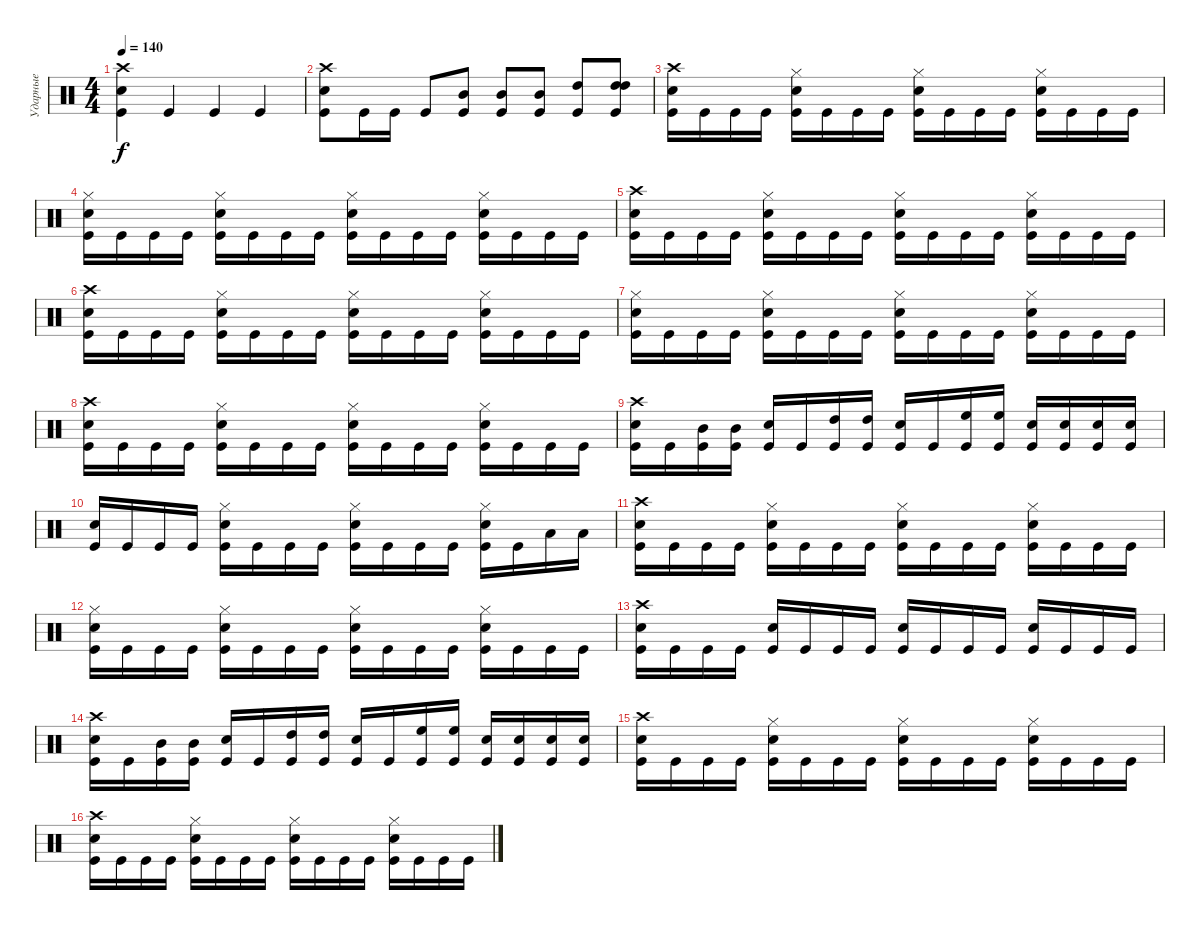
\track ("Ударные" "Ударные") {instrument percussion}
\staff {score}
\articulation defaults
\ts (4 4)
\tempo 140
\clef neutral
\ks c
("Crash high (hit)" "Electric Snare (hit)" "Kick (hit)").4{dy f} "Kick (hit)".4 "Kick (hit)".4 "Kick (hit)".4 |
("Electric Snare (hit)" "Crash high (hit)" "Kick (hit)").8 "Kick (hit)".16 "Kick (hit)".16 "Kick (hit)".8 ("Mid Tom (hit)" "Kick (hit)").8 ("Mid Tom (hit)" "Kick (hit)").8 ("Mid Tom (hit)" "Kick (hit)").8 ("High Tom (hit)" "Kick (hit)").8 ("High Tom (hit)" "High Tom (hit)" "Kick (hit)").8 |
("Crash high (hit)" "Electric Snare (hit)" "Kick (hit)").16 "Kick (hit)".16 "Kick (hit)".16 "Kick (hit)".16 ("Hi-Hat (closed)" "Electric Snare (hit)" "Kick (hit)").16 "Kick (hit)".16 "Kick (hit)".16 "Kick (hit)".16 ("Hi-Hat (closed)" "Electric Snare (hit)" "Kick (hit)").16 "Kick (hit)".16 "Kick (hit)".16 "Kick (hit)".16 ("Hi-Hat (closed)" "Electric Snare (hit)" "Kick (hit)").16 "Kick (hit)".16 "Kick (hit)".16 "Kick (hit)".16 |
("Hi-Hat (closed)" "Electric Snare (hit)" "Kick (hit)").16 "Kick (hit)".16 "Kick (hit)".16 "Kick (hit)".16 ("Hi-Hat (closed)" "Electric Snare (hit)" "Kick (hit)").16 "Kick (hit)".16 "Kick (hit)".16 "Kick (hit)".16 ("Hi-Hat (closed)" "Electric Snare (hit)" "Kick (hit)").16 "Kick (hit)".16 "Kick (hit)".16 "Kick (hit)".16 ("Hi-Hat (closed)" "Electric Snare (hit)" "Kick (hit)").16 "Kick (hit)".16 "Kick (hit)".16 "Kick (hit)".16 |
("Crash high (hit)" "Electric Snare (hit)" "Kick (hit)").16 "Kick (hit)".16 "Kick (hit)".16 "Kick (hit)".16 ("Hi-Hat (closed)" "Electric Snare (hit)" "Kick (hit)").16 "Kick (hit)".16 "Kick (hit)".16 "Kick (hit)".16 ("Hi-Hat (closed)" "Electric Snare (hit)" "Kick (hit)").16 "Kick (hit)".16 "Kick (hit)".16 "Kick (hit)".16 ("Hi-Hat (closed)" "Electric Snare (hit)" "Kick (hit)").16 "Kick (hit)".16 "Kick (hit)".16 "Kick (hit)".16 |
("Crash high (hit)" "Electric Snare (hit)" "Kick (hit)").16 "Kick (hit)".16 "Kick (hit)".16 "Kick (hit)".16 ("Hi-Hat (closed)" "Electric Snare (hit)" "Kick (hit)").16 "Kick (hit)".16 "Kick (hit)".16 "Kick (hit)".16 ("Hi-Hat (closed)" "Electric Snare (hit)" "Kick (hit)").16 "Kick (hit)".16 "Kick (hit)".16 "Kick (hit)".16 ("Hi-Hat (closed)" "Electric Snare (hit)" "Kick (hit)").16 "Kick (hit)".16 "Kick (hit)".16 "Kick (hit)".16 |
("Hi-Hat (closed)" "Electric Snare (hit)" "Kick (hit)").16 "Kick (hit)".16 "Kick (hit)".16 "Kick (hit)".16 ("Hi-Hat (closed)" "Electric Snare (hit)" "Kick (hit)").16 "Kick (hit)".16 "Kick (hit)".16 "Kick (hit)".16 ("Hi-Hat (closed)" "Electric Snare (hit)" "Kick (hit)").16 "Kick (hit)".16 "Kick (hit)".16 "Kick (hit)".16 ("Hi-Hat (closed)" "Electric Snare (hit)" "Kick (hit)").16 "Kick (hit)".16 "Kick (hit)".16 "Kick (hit)".16 |
("Crash high (hit)" "Electric Snare (hit)" "Kick (hit)").16 "Kick (hit)".16 "Kick (hit)".16 "Kick (hit)".16 ("Hi-Hat (closed)" "Electric Snare (hit)" "Kick (hit)").16 "Kick (hit)".16 "Kick (hit)".16 "Kick (hit)".16 ("Hi-Hat (closed)" "Electric Snare (hit)" "Kick (hit)").16 "Kick (hit)".16 "Kick (hit)".16 "Kick (hit)".16 ("Hi-Hat (closed)" "Electric Snare (hit)" "Kick (hit)").16 "Kick (hit)".16 "Kick (hit)".16 "Kick (hit)".16 |
("Crash high (hit)" "Electric Snare (hit)" "Kick (hit)").16 "Kick (hit)".16 ("Mid Tom (hit)" "Kick (hit)").16 ("Mid Tom (hit)" "Kick (hit)").16 ("Electric Snare (hit)" "Kick (hit)").16 "Kick (hit)".16 ("High Tom (hit)" "Kick (hit)").16 ("High Tom (hit)" "Kick (hit)").16 ("Electric Snare (hit)" "Kick (hit)").16 "Kick (hit)".16 ("High Floor Tom (hit)" "Kick (hit)").16 ("High Floor Tom (hit)" "Kick (hit)").16 ("Electric Snare (hit)" "Kick (hit)").16 ("Electric Snare (hit)" "Kick (hit)").16 ("Electric Snare (hit)" "Kick (hit)").16 ("Electric Snare (hit)" "Kick (hit)").16 |
("Electric Snare (hit)" "Kick (hit)").16 "Kick (hit)".16 "Kick (hit)".16 "Kick (hit)".16 ("Hi-Hat (closed)" "Electric Snare (hit)" "Kick (hit)").16 "Kick (hit)".16 "Kick (hit)".16 "Kick (hit)".16 ("Hi-Hat (closed)" "Electric Snare (hit)" "Kick (hit)").16 "Kick (hit)".16 "Kick (hit)".16 "Kick (hit)".16 ("Hi-Hat (closed)" "Electric Snare (hit)" "Kick (hit)").16 "Kick (hit)".16 "Low Tom (hit)".16 "Low Tom (hit)".16 |
("Crash high (hit)" "Electric Snare (hit)" "Kick (hit)").16 "Kick (hit)".16 "Kick (hit)".16 "Kick (hit)".16 ("Hi-Hat (closed)" "Electric Snare (hit)" "Kick (hit)").16 "Kick (hit)".16 "Kick (hit)".16 "Kick (hit)".16 ("Hi-Hat (closed)" "Electric Snare (hit)" "Kick (hit)").16 "Kick (hit)".16 "Kick (hit)".16 "Kick (hit)".16 ("Hi-Hat (closed)" "Electric Snare (hit)" "Kick (hit)").16 "Kick (hit)".16 "Kick (hit)".16 "Kick (hit)".16 |
("Hi-Hat (closed)" "Electric Snare (hit)" "Kick (hit)").16 "Kick (hit)".16 "Kick (hit)".16 "Kick (hit)".16 ("Hi-Hat (closed)" "Electric Snare (hit)" "Kick (hit)").16 "Kick (hit)".16 "Kick (hit)".16 "Kick (hit)".16 ("Hi-Hat (closed)" "Electric Snare (hit)" "Kick (hit)").16 "Kick (hit)".16 "Kick (hit)".16 "Kick (hit)".16 ("Hi-Hat (closed)" "Electric Snare (hit)" "Kick (hit)").16 "Kick (hit)".16 "Kick (hit)".16 "Kick (hit)".16 |
("Crash high (hit)" "Electric Snare (hit)" "Kick (hit)").16 "Kick (hit)".16 "Kick (hit)".16 "Kick (hit)".16 ("Electric Snare (hit)" "Kick (hit)").16 "Kick (hit)".16 "Kick (hit)".16 "Kick (hit)".16 ("Electric Snare (hit)" "Kick (hit)").16 "Kick (hit)".16 "Kick (hit)".16 "Kick (hit)".16 ("Electric Snare (hit)" "Kick (hit)").16 "Kick (hit)".16 "Kick (hit)".16 "Kick (hit)".16 |
("Crash high (hit)" "Electric Snare (hit)" "Kick (hit)").16 "Kick (hit)".16 ("Mid Tom (hit)" "Kick (hit)").16 ("Mid Tom (hit)" "Kick (hit)").16 ("Electric Snare (hit)" "Kick (hit)").16 "Kick (hit)".16 ("High Tom (hit)" "Kick (hit)").16 ("High Tom (hit)" "Kick (hit)").16 ("Electric Snare (hit)" "Kick (hit)").16 "Kick (hit)".16 ("High Floor Tom (hit)" "Kick (hit)").16 ("High Floor Tom (hit)" "Kick (hit)").16 ("Electric Snare (hit)" "Kick (hit)").16 ("Electric Snare (hit)" "Kick (hit)").16 ("Electric Snare (hit)" "Kick (hit)").16 ("Electric Snare (hit)" "Kick (hit)").16 |
("Crash high (hit)" "Electric Snare (hit)" "Kick (hit)").16 "Kick (hit)".16 "Kick (hit)".16 "Kick (hit)".16 ("Hi-Hat (closed)" "Electric Snare (hit)" "Kick (hit)").16 "Kick (hit)".16 "Kick (hit)".16 "Kick (hit)".16 ("Hi-Hat (closed)" "Electric Snare (hit)" "Kick (hit)").16 "Kick (hit)".16 "Kick (hit)".16 "Kick (hit)".16 ("Hi-Hat (closed)" "Electric Snare (hit)" "Kick (hit)").16 "Kick (hit)".16 "Kick (hit)".16 "Kick (hit)".16 |
("Crash high (hit)" "Electric Snare (hit)" "Kick (hit)").16 "Kick (hit)".16 "Kick (hit)".16 "Kick (hit)".16 ("Hi-Hat (closed)" "Electric Snare (hit)" "Kick (hit)").16 "Kick (hit)".16 "Kick (hit)".16 "Kick (hit)".16 ("Hi-Hat (closed)" "Electric Snare (hit)" "Kick (hit)").16 "Kick (hit)".16 "Kick (hit)".16 "Kick (hit)".16 ("Hi-Hat (closed)" "Electric Snare (hit)" "Kick (hit)").16 "Kick (hit)".16 "Kick (hit)".16 "Kick (hit)".16
